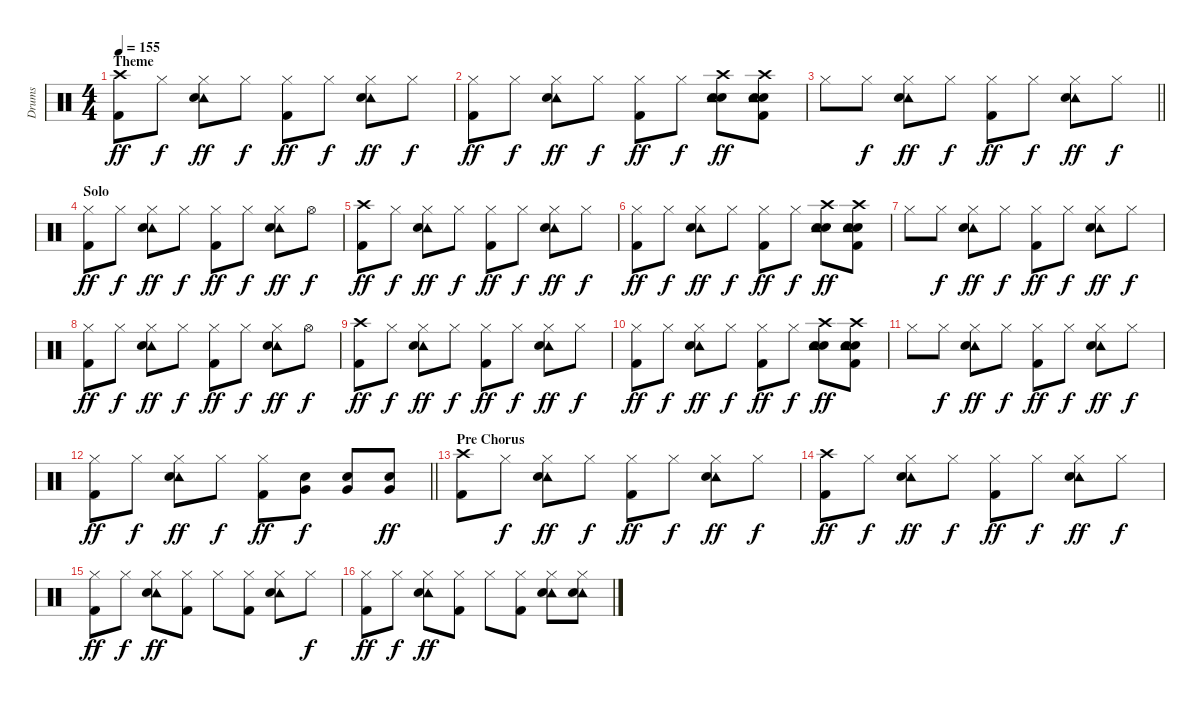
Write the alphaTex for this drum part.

\track ("Drums" "Drums") {instrument percussion}
\staff {score}
\articulation defaults
\ts (4 4)
\section ("" "Theme")
\tempo 155
\clef neutral
\ks c
("Crash high (hit)" "Kick (hit) 2").8{dy ff} "Hi-Hat (closed)".8{dy f} ("Tambourine (hit)" "Hi-Hat (closed)" "Snare (hit) 2").8{dy ff} "Hi-Hat (closed)".8{dy f} ("Hi-Hat (closed)" "Kick (hit) 2").8{dy ff} "Hi-Hat (closed)".8{dy f} ("Tambourine (hit)" "Hi-Hat (closed)" "Snare (hit) 2").8{dy ff} "Hi-Hat (closed)".8{dy f} |
("Hi-Hat (closed)" "Kick (hit) 2").8{dy ff} "Hi-Hat (closed)".8{dy f} ("Tambourine (hit)" "Hi-Hat (closed)" "Snare (hit) 2").8{dy ff} "Hi-Hat (closed)".8{dy f} ("Hi-Hat (closed)" "Kick (hit) 2").8{dy ff} "Hi-Hat (closed)".8{dy f} ("Hand Clap (hit)" "Tambourine (hit)" "Crash high (hit)" "Snare (hit) 2").8{dy ff} ("Hand Clap (hit)" "Tambourine (hit)" "Crash high (hit)" "Snare (hit) 2" "Kick (hit) 2").8 |
\barLineRight lightlight "Hi-Hat (closed)".8 "Hi-Hat (closed)".8{dy f}
("Tambourine (hit)" "Hi-Hat (closed)" "Snare (hit) 2").8{dy ff} "Hi-Hat (closed)".8{dy f} ("Hi-Hat (closed)" "Kick (hit) 2").8{dy ff} "Hi-Hat (closed)".8{dy f} ("Tambourine (hit)" "Hi-Hat (closed)" "Snare (hit) 2").8{dy ff} "Hi-Hat (closed)".8{dy f} |
\section ("" "Solo")
("Hi-Hat (closed)" "Kick (hit) 2").8{dy ff} "Hi-Hat (closed)".8{dy f} ("Tambourine (hit)" "Hi-Hat (closed)" "Snare (hit) 2").8{dy ff} "Hi-Hat (closed)".8{dy f} ("Hi-Hat (closed)" "Kick (hit) 2").8{dy ff} "Hi-Hat (closed)".8{dy f} ("Tambourine (hit)" "Hi-Hat (closed)" "Snare (hit) 2").8{dy ff} "Hi-Hat (open)".8{dy f} |
("Crash high (hit)" "Kick (hit) 2").8{dy ff} "Hi-Hat (closed)".8{dy f} ("Tambourine (hit)" "Hi-Hat (closed)" "Snare (hit) 2").8{dy ff} "Hi-Hat (closed)".8{dy f} ("Hi-Hat (closed)" "Kick (hit) 2").8{dy ff} "Hi-Hat (closed)".8{dy f} ("Tambourine (hit)" "Hi-Hat (closed)" "Snare (hit) 2").8{dy ff} "Hi-Hat (closed)".8{dy f} |
("Hi-Hat (closed)" "Kick (hit) 2").8{dy ff} "Hi-Hat (closed)".8{dy f} ("Tambourine (hit)" "Hi-Hat (closed)" "Snare (hit) 2").8{dy ff} "Hi-Hat (closed)".8{dy f} ("Hi-Hat (closed)" "Kick (hit) 2").8{dy ff} "Hi-Hat (closed)".8{dy f} ("Hand Clap (hit)" "Tambourine (hit)" "Crash high (hit)" "Snare (hit) 2").8{dy ff} ("Hand Clap (hit)" "Tambourine (hit)" "Crash high (hit)" "Snare (hit) 2" "Kick (hit) 2").8 |
"Hi-Hat (closed)".8 "Hi-Hat (closed)".8{dy f} ("Tambourine (hit)" "Hi-Hat (closed)" "Snare (hit) 2").8{dy ff} "Hi-Hat (closed)".8{dy f} ("Hi-Hat (closed)" "Kick (hit) 2").8{dy ff} "Hi-Hat (closed)".8{dy f} ("Tambourine (hit)" "Hi-Hat (closed)" "Snare (hit) 2").8{dy ff} "Hi-Hat (closed)".8{dy f} |
("Hi-Hat (closed)" "Kick (hit) 2").8{dy ff} "Hi-Hat (closed)".8{dy f} ("Tambourine (hit)" "Hi-Hat (closed)" "Snare (hit) 2").8{dy ff} "Hi-Hat (closed)".8{dy f} ("Hi-Hat (closed)" "Kick (hit) 2").8{dy ff} "Hi-Hat (closed)".8{dy f} ("Tambourine (hit)" "Hi-Hat (closed)" "Snare (hit) 2").8{dy ff} "Hi-Hat (open)".8{dy f} |
("Crash high (hit)" "Kick (hit) 2").8{dy ff} "Hi-Hat (closed)".8{dy f} ("Tambourine (hit)" "Hi-Hat (closed)" "Snare (hit) 2").8{dy ff} "Hi-Hat (closed)".8{dy f} ("Hi-Hat (closed)" "Kick (hit) 2").8{dy ff} "Hi-Hat (closed)".8{dy f} ("Tambourine (hit)" "Hi-Hat (closed)" "Snare (hit) 2").8{dy ff} "Hi-Hat (closed)".8{dy f} |
("Hi-Hat (closed)" "Kick (hit) 2").8{dy ff} "Hi-Hat (closed)".8{dy f} ("Tambourine (hit)" "Hi-Hat (closed)" "Snare (hit) 2").8{dy ff} "Hi-Hat (closed)".8{dy f} ("Hi-Hat (closed)" "Kick (hit) 2").8{dy ff} "Hi-Hat (closed)".8{dy f} ("Hand Clap (hit)" "Tambourine (hit)" "Crash high (hit)" "Snare (hit) 2").8{dy ff} ("Hand Clap (hit)" "Tambourine (hit)" "Crash high (hit)" "Snare (hit) 2" "Kick (hit) 2").8 |
"Hi-Hat (closed)".8 "Hi-Hat (closed)".8{dy f} ("Tambourine (hit)" "Hi-Hat (closed)" "Snare (hit) 2").8{dy ff} "Hi-Hat (closed)".8{dy f} ("Hi-Hat (closed)" "Kick (hit) 2").8{dy ff} "Hi-Hat (closed)".8{dy f} ("Tambourine (hit)" "Hi-Hat (closed)" "Snare (hit) 2").8{dy ff} "Hi-Hat (closed)".8{dy f} |
\barLineRight lightlight
("Hi-Hat (closed)" "Kick (hit) 2").8{dy ff} "Hi-Hat (closed)".8{dy f} ("Tambourine (hit)" "Hi-Hat (closed)" "Snare (hit) 2").8{dy ff} "Hi-Hat (closed)".8{dy f} ("Hi-Hat (closed)" "Kick (hit) 2").8{dy ff} ("Very Low Tom (hit)" "Snare (hit) 2").8{dy f} ("Very Low Tom (hit)" "Snare (hit) 2").8 ("Very Low Tom (hit)" "Snare (hit) 2").8{dy ff} |
\section ("" "Pre Chorus")
("Crash high (hit)" "Kick (hit) 2").8 "Hi-Hat (closed)".8{dy f} ("Tambourine (hit)" "Hi-Hat (closed)" "Snare (hit) 2").8{dy ff} "Hi-Hat (closed)".8{dy f} ("Hi-Hat (closed)" "Kick (hit) 2").8{dy ff} "Hi-Hat (closed)".8{dy f} ("Tambourine (hit)" "Hi-Hat (closed)" "Snare (hit) 2").8{dy ff} "Hi-Hat (closed)".8{dy f} |
("Crash high (hit)" "Kick (hit) 2").8{dy ff} "Hi-Hat (closed)".8{dy f} ("Tambourine (hit)" "Hi-Hat (closed)" "Snare (hit) 2").8{dy ff} "Hi-Hat (closed)".8{dy f} ("Hi-Hat (closed)" "Kick (hit) 2").8{dy ff} "Hi-Hat (closed)".8{dy f} ("Tambourine (hit)" "Hi-Hat (closed)" "Snare (hit) 2").8{dy ff} "Hi-Hat (closed)".8{dy f} |
("Hi-Hat (closed)" "Kick (hit) 2").8{dy ff} "Hi-Hat (closed)".8{dy f} ("Tambourine (hit)" "Hi-Hat (closed)" "Snare (hit) 2").8{dy ff} ("Hi-Hat (closed)" "Kick (hit) 2").8 "Hi-Hat (closed)".8 ("Hi-Hat (closed)" "Kick (hit) 2").8 ("Tambourine (hit)" "Hi-Hat (closed)" "Snare (hit) 2").8 "Hi-Hat (closed)".8{dy f} |
("Hi-Hat (closed)" "Kick (hit) 2").8{dy ff} "Hi-Hat (closed)".8{dy f} ("Tambourine (hit)" "Hi-Hat (closed)" "Snare (hit) 2").8{dy ff} ("Hi-Hat (closed)" "Kick (hit) 2").8 "Hi-Hat (closed)".8 ("Hi-Hat (closed)" "Kick (hit) 2").8 ("Tambourine (hit)" "Hi-Hat (closed)" "Snare (hit) 2").8 ("Tambourine (hit)" "Hi-Hat (closed)" "Snare (hit) 2").8
